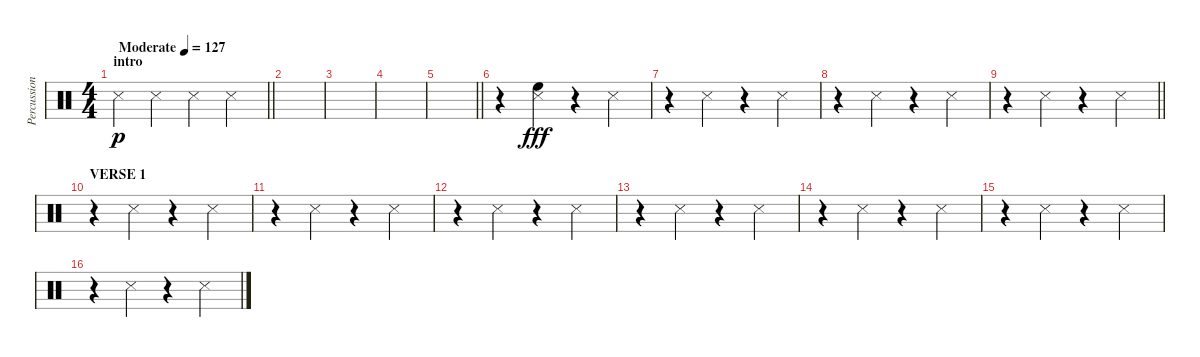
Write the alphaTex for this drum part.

\track ("Percussion" "Percussion") {instrument percussion}
\staff {score}
\articulation defaults
\ts (4 4)
\section ("" "intro")
\tempo (127 "Moderate")
\clef neutral
\barLineRight lightlight
\ks c "Metronome (hit)".4{dy p} "Metronome (hit)".4 "Metronome (hit)".4 "Metronome (hit)".4
|
|
|
|
\barLineRight lightlight
|
r.4 ("Snare (side stick) 3" "High Floor Tom (hit)").4{dy fff} r.4 "Snare (side stick) 3".4 |
r.4 "Snare (side stick) 3".4 r.4 "Snare (side stick) 3".4 |
r.4 "Snare (side stick) 3".4 r.4 "Snare (side stick) 3".4 |
\barLineRight lightlight
r.4 "Snare (side stick) 3".4 r.4 "Snare (side stick) 3".4 |
\section ("" "VERSE 1")
r.4 "Snare (side stick) 3".4 r.4 "Snare (side stick) 3".4 |
r.4 "Snare (side stick) 3".4 r.4 "Snare (side stick) 3".4 |
r.4 "Snare (side stick) 3".4 r.4 "Snare (side stick) 3".4 |
r.4 "Snare (side stick) 3".4 r.4 "Snare (side stick) 3".4 |
r.4 "Snare (side stick) 3".4 r.4 "Snare (side stick) 3".4 |
r.4 "Snare (side stick) 3".4 r.4 "Snare (side stick) 3".4 |
r.4 "Snare (side stick) 3".4 r.4 "Snare (side stick) 3".4
